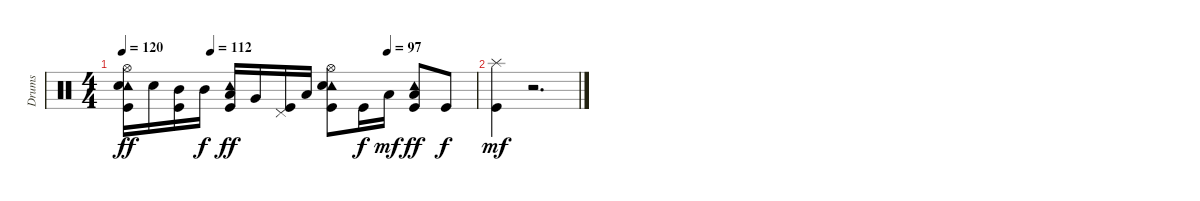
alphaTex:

\track ("Drums" "Drums") {instrument percussion}
\staff {score}
\articulation defaults
\ts (4 4)
\tempo 120
\tempo (112 0.25)
\tempo (97 0.75)
\clef neutral
\ks c
("Hi-Hat (open)" "Tambourine (hit)" "Snare (hit) 2" "Kick (hit)").16{dy ff} "Snare (hit) 2".16 ("Mid Tom (hit)" "Kick (hit)").16 "Mid Tom (hit)".16{dy f} ("Tambourine (hit)" "Low Tom (hit)" "Kick (hit)").16{dy ff} "Very Low Tom (hit)".16 ("Pedal Hi-Hat (hit)" "Kick (hit)").16 "Low Floor Tom (hit)".16 ("Hi-Hat (open)" "Tambourine (hit)" "Snare (hit) 2" "Kick (hit)").8 "Kick (hit)".16{dy f} "Low Floor Tom (hit)".16{dy mf} ("Tambourine (hit)" "Low Tom (hit)" "Kick (hit)").8{dy ff} "Kick (hit)".8{dy f} |
("Splash (hit)" "Kick (hit)").4{dy mf} r.2{d}
